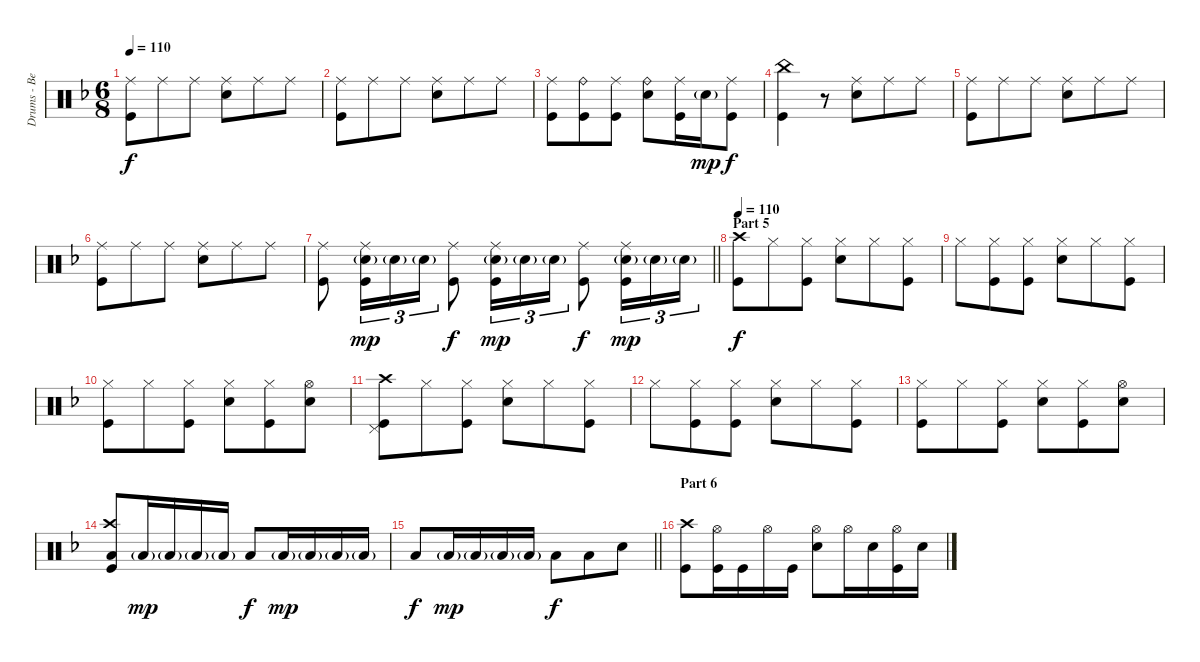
\track ("Drums - Ben Johnston" "Drums - Be") {instrument percussion}
\staff {score}
\articulation defaults
\ts (6 8)
\tempo 110
\clef neutral
\ks dminor
("Ride (middle)" "Kick (hit)").8{dy f} "Ride (middle)".8 "Ride (middle)".8 ("Ride (middle)" "Snare (hit) 2").8 "Ride (middle)".8 "Ride (middle)".8 |
("Ride (middle)" "Kick (hit)").8 "Ride (middle)".8 "Ride (middle)".8 ("Ride (middle)" "Snare (hit) 2").8 "Ride (middle)".8 "Ride (middle)".8 |
("Ride (middle)" "Kick (hit)").8 ("Ride (bell)" "Kick (hit)").8 ("Ride (middle)" "Kick (hit)").8 ("Ride (bell)" "Snare (hit) 2").8 ("Ride (middle)" "Kick (hit)").16 "Snare (hit) 2"{g}.16{dy mp} ("Ride (middle)" "Kick (hit)").8{dy f} |
("China (hit)" "Kick (hit)").4 r.8 ("Ride (middle)" "Snare (hit) 2").8 "Ride (middle)".8 "Ride (middle)".8 |
("Ride (middle)" "Kick (hit)").8 "Ride (middle)".8 "Ride (middle)".8 ("Ride (middle)" "Snare (hit) 2").8 "Ride (middle)".8 "Ride (middle)".8 |
("Ride (middle)" "Kick (hit)").8 "Ride (middle)".8 "Ride (middle)".8 ("Ride (middle)" "Snare (hit) 2").8 "Ride (middle)".8 "Ride (middle)".8 |
\barLineRight lightlight
("Ride (middle)" "Kick (hit)").8 ("Ride (middle)" "Snare (hit) 2"{g} "Kick (hit)").16{tu (3 2) dy mp} "Snare (hit) 2"{g}.16{tu (3 2)} "Snare (hit) 2"{g}.16{tu (3 2)} ("Ride (middle)" "Kick (hit)").8{dy f} ("Ride (middle)" "Snare (hit) 2"{g} "Kick (hit)").16{tu (3 2) dy mp} "Snare (hit) 2"{g}.16{tu (3 2)} "Snare (hit) 2"{g}.16{tu (3 2)} ("Ride (middle)" "Kick (hit)").8{dy f} ("Ride (middle)" "Snare (hit) 2"{g} "Kick (hit)").16{tu (3 2) dy mp} "Snare (hit) 2"{g}.16{tu (3 2)} "Snare (hit) 2"{g}.16{tu (3 2)} |
\section ("" "Part 5")
\tempo 110
("Crash high (hit)" "Kick (hit)").8{dy f} "Hi-Hat (closed)".8 ("Hi-Hat (closed)" "Kick (hit)").8 ("Hi-Hat (closed)" "Snare (hit) 2").8 "Hi-Hat (closed)".8 ("Hi-Hat (closed)" "Kick (hit)").8 |
"Hi-Hat (closed)".8 ("Hi-Hat (closed)" "Kick (hit)").8 ("Hi-Hat (closed)" "Kick (hit)").8 ("Hi-Hat (closed)" "Snare (hit) 2").8 "Hi-Hat (closed)".8 ("Hi-Hat (closed)" "Kick (hit)").8 |
("Hi-Hat (closed)" "Kick (hit)").8 "Hi-Hat (closed)".8 ("Hi-Hat (closed)" "Kick (hit)").8 ("Hi-Hat (closed)" "Snare (hit) 2").8 ("Hi-Hat (closed)" "Kick (hit)").8 ("Hi-Hat (open)" "Snare (hit) 2").8 |
("Crash high (hit)" "Pedal Hi-Hat (hit)" "Kick (hit)").8 "Hi-Hat (closed)".8 ("Hi-Hat (closed)" "Kick (hit)").8 ("Hi-Hat (closed)" "Snare (hit) 2").8 "Hi-Hat (closed)".8 ("Hi-Hat (closed)" "Kick (hit)").8 |
"Hi-Hat (closed)".8 ("Hi-Hat (closed)" "Kick (hit)").8 ("Hi-Hat (closed)" "Kick (hit)").8 ("Hi-Hat (closed)" "Snare (hit) 2").8 "Hi-Hat (closed)".8 ("Hi-Hat (closed)" "Kick (hit)").8 |
("Hi-Hat (closed)" "Kick (hit)").8 "Hi-Hat (closed)".8 ("Hi-Hat (closed)" "Kick (hit)").8 ("Hi-Hat (closed)" "Snare (hit) 2").8 ("Hi-Hat (closed)" "Kick (hit)").8 ("Hi-Hat (open)" "Snare (hit) 2").8 |
("Crash high (hit)" "Low Tom (hit)" "Kick (hit)").8 "Low Tom (hit)"{g}.16{dy mp} "Low Tom (hit)"{g}.16 "Low Tom (hit)"{g}.16 "Low Tom (hit)"{g}.16 "Low Tom (hit)".8{dy f} "Low Tom (hit)"{g}.16{dy mp} "Low Tom (hit)"{g}.16 "Low Tom (hit)"{g}.16 "Low Tom (hit)"{g}.16 |
\barLineRight lightlight "Low Tom (hit)".8{dy f} "Low Tom (hit)"{g}.16{dy mp} "Low Tom (hit)"{g}.16 "Low Tom (hit)"{g}.16 "Low Tom (hit)"{g}.16 "Low Tom (hit)".8{dy f} "Low Tom (hit)".8 "Snare (hit) 2".8
|
\section ("" "Part 6")
("Crash high (hit)" "Kick (hit)").8{volume 14} ("Hi-Hat (open)" "Kick (hit)").16 "Kick (hit)".16 "Hi-Hat (open)".16 "Kick (hit)".16 ("Hi-Hat (open)" "Snare (hit) 2").8 "Hi-Hat (open)".16 "Snare (hit) 2".16 ("Hi-Hat (open)" "Kick (hit)").16 "Snare (hit) 2".16
